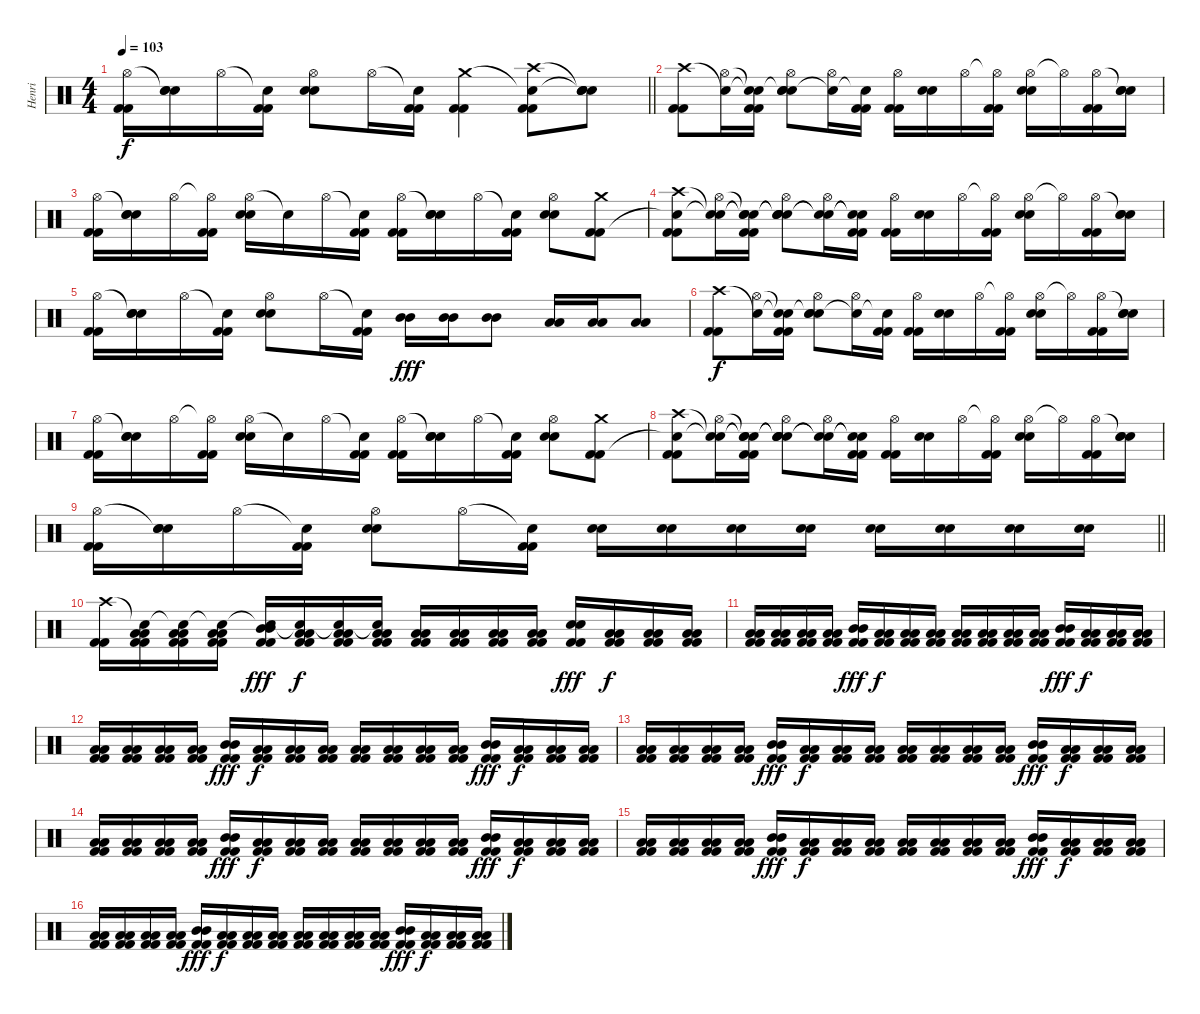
\track ("Henri" "Henri") {instrument percussion}
\staff {score}
\articulation defaults
\ts (4 4)
\tempo 103
\clef neutral
\barLineRight lightlight
\ks c
("Hi-Hat (open)" "Kick (hit) 2" "Kick (hit) 2").16{dy f} ("Snare (hit)"{t} "Snare (hit) 2" "Snare (hit) 2").16 "Hi-Hat (open)".16 ("Snare (hit)"{t} "Kick (hit) 2" "Kick (hit) 2").16 ("Hi-Hat (open)" "Snare (hit) 2" "Snare (hit) 2").8 "Hi-Hat (open)".16 ("Snare (hit)"{t} "Kick (hit) 2" "Kick (hit) 2").16 ("Crash medium (hit)" "Kick (hit) 2" "Kick (hit) 2").4 ("Snare (hit)"{t} "Crash high (hit)" "Kick (hit) 2" "Kick (hit) 2").8 ("Snare (hit)"{t} "Snare (hit)"{t} "Snare (hit) 2" "Snare (hit) 2").8 |
("Crash high (hit)" "Kick (hit) 2" "Kick (hit) 2").8 ("Snare (hit)"{t} "Hi-Hat (open)").16 ("Snare (hit)"{t} "Snare (hit)"{t} "Kick (hit) 2" "Kick (hit) 2").16 ("Snare (hit)"{t} "Hi-Hat (open)" "Snare (hit) 2" "Snare (hit) 2").8 ("Snare (hit)"{t} "Hi-Hat (open)").16 ("Snare (hit)"{t} "Kick (hit) 2" "Kick (hit) 2").16 ("Hi-Hat (open)" "Kick (hit) 2" "Kick (hit) 2").16 ("Snare (hit) 2" "Snare (hit) 2").16 "Hi-Hat (open)".16 ("Hi-Hat (open)"{t} "Kick (hit) 2" "Kick (hit) 2").16 ("Hi-Hat (open)" "Snare (hit) 2" "Snare (hit) 2").16 "Hi-Hat (open)"{t}.16 ("Hi-Hat (open)" "Kick (hit) 2" "Kick (hit) 2").16 ("Snare (hit)"{t} "Snare (hit) 2" "Snare (hit) 2").16 |
("Hi-Hat (open)" "Kick (hit) 2" "Kick (hit) 2").16 ("Snare (hit)"{t} "Snare (hit) 2" "Snare (hit) 2").16 "Hi-Hat (open)".16 ("Hi-Hat (open)"{t} "Kick (hit) 2" "Kick (hit) 2").16 ("Hi-Hat (open)" "Snare (hit) 2" "Snare (hit) 2").16 "Snare (hit)"{t}.16 "Hi-Hat (open)".16 ("Snare (hit)"{t} "Kick (hit) 2" "Kick (hit) 2").16 ("Hi-Hat (open)" "Kick (hit) 2" "Kick (hit) 2").16 ("Snare (hit)"{t} "Snare (hit) 2" "Snare (hit) 2").16 "Hi-Hat (open)".16 ("Snare (hit)"{t} "Kick (hit) 2" "Kick (hit) 2").16 ("Hi-Hat (open)" "Snare (hit) 2" "Snare (hit) 2").8 ("Crash medium (hit)" "Kick (hit) 2" "Kick (hit) 2").8 |
("Crash high (hit)" "Snare (hit)"{t} "Kick (hit) 2" "Kick (hit) 2").8 ("Snare (hit)"{t} "Snare (hit)"{t} "Hi-Hat (open)").16 ("Snare (hit)"{t} "Snare (hit)"{t} "Snare (hit)"{t} "Kick (hit) 2" "Kick (hit) 2").16 ("Snare (hit)"{t} "Snare (hit)"{t} "Hi-Hat (open)" "Snare (hit) 2" "Snare (hit) 2").8 ("Snare (hit)"{t} "Snare (hit)"{t} "Hi-Hat (open)").16 ("Snare (hit)"{t} "Snare (hit)"{t} "Kick (hit) 2" "Kick (hit) 2").16 ("Hi-Hat (open)" "Kick (hit) 2" "Kick (hit) 2").16 ("Snare (hit) 2" "Snare (hit) 2").16 "Hi-Hat (open)".16 ("Hi-Hat (open)"{t} "Kick (hit) 2" "Kick (hit) 2").16 ("Hi-Hat (open)" "Snare (hit) 2" "Snare (hit) 2").16 "Hi-Hat (open)"{t}.16 ("Hi-Hat (open)" "Kick (hit) 2" "Kick (hit) 2").16 ("Snare (hit)"{t} "Snare (hit) 2" "Snare (hit) 2").16 |
("Hi-Hat (open)" "Kick (hit) 2" "Kick (hit) 2").16 ("Snare (hit)"{t} "Snare (hit) 2" "Snare (hit) 2").16 "Hi-Hat (open)".16 ("Snare (hit)"{t} "Kick (hit) 2" "Kick (hit) 2").16 ("Hi-Hat (open)" "Snare (hit) 2" "Snare (hit) 2").8 "Hi-Hat (open)".16 ("Snare (hit)"{t} "Kick (hit) 2" "Kick (hit) 2").16 ("Mid Tom (hit)" "Mid Tom (hit)").16{dy fff} ("Mid Tom (hit)" "Mid Tom (hit)").16 ("Mid Tom (hit)" "Mid Tom (hit)").8 ("Low Tom (hit)" "Low Tom (hit)").16 ("Low Tom (hit)" "Low Tom (hit)").16 ("Low Tom (hit)" "Low Tom (hit)").8 |
("Crash high (hit)" "Kick (hit) 2" "Kick (hit) 2").8{dy f} ("Snare (hit)"{t} "Hi-Hat (open)").16 ("Snare (hit)"{t} "Snare (hit)"{t} "Kick (hit) 2" "Kick (hit) 2").16 ("Snare (hit)"{t} "Hi-Hat (open)" "Snare (hit) 2" "Snare (hit) 2").8 ("Snare (hit)"{t} "Hi-Hat (open)").16 ("Snare (hit)"{t} "Kick (hit) 2" "Kick (hit) 2").16 ("Hi-Hat (open)" "Kick (hit) 2" "Kick (hit) 2").16 ("Snare (hit) 2" "Snare (hit) 2").16 "Hi-Hat (open)".16 ("Hi-Hat (open)"{t} "Kick (hit) 2" "Kick (hit) 2").16 ("Hi-Hat (open)" "Snare (hit) 2" "Snare (hit) 2").16 "Hi-Hat (open)"{t}.16 ("Hi-Hat (open)" "Kick (hit) 2" "Kick (hit) 2").16 ("Snare (hit)"{t} "Snare (hit) 2" "Snare (hit) 2").16 |
("Hi-Hat (open)" "Kick (hit) 2" "Kick (hit) 2").16 ("Snare (hit)"{t} "Snare (hit) 2" "Snare (hit) 2").16 "Hi-Hat (open)".16 ("Hi-Hat (open)"{t} "Kick (hit) 2" "Kick (hit) 2").16 ("Hi-Hat (open)" "Snare (hit) 2" "Snare (hit) 2").16 "Snare (hit)"{t}.16 "Hi-Hat (open)".16 ("Snare (hit)"{t} "Kick (hit) 2" "Kick (hit) 2").16 ("Hi-Hat (open)" "Kick (hit) 2" "Kick (hit) 2").16 ("Snare (hit)"{t} "Snare (hit) 2" "Snare (hit) 2").16 "Hi-Hat (open)".16 ("Snare (hit)"{t} "Kick (hit) 2" "Kick (hit) 2").16 ("Hi-Hat (open)" "Snare (hit) 2" "Snare (hit) 2").8 ("Crash medium (hit)" "Kick (hit) 2" "Kick (hit) 2").8 |
("Crash high (hit)" "Snare (hit)"{t} "Kick (hit) 2" "Kick (hit) 2").8 ("Snare (hit)"{t} "Snare (hit)"{t} "Hi-Hat (open)").16 ("Snare (hit)"{t} "Snare (hit)"{t} "Snare (hit)"{t} "Kick (hit) 2" "Kick (hit) 2").16 ("Snare (hit)"{t} "Snare (hit)"{t} "Hi-Hat (open)" "Snare (hit) 2" "Snare (hit) 2").8 ("Snare (hit)"{t} "Snare (hit)"{t} "Hi-Hat (open)").16 ("Snare (hit)"{t} "Snare (hit)"{t} "Kick (hit) 2" "Kick (hit) 2").16 ("Hi-Hat (open)" "Kick (hit) 2" "Kick (hit) 2").16 ("Snare (hit) 2" "Snare (hit) 2").16 "Hi-Hat (open)".16 ("Hi-Hat (open)"{t} "Kick (hit) 2" "Kick (hit) 2").16 ("Hi-Hat (open)" "Snare (hit) 2" "Snare (hit) 2").16 "Hi-Hat (open)"{t}.16 ("Hi-Hat (open)" "Kick (hit) 2" "Kick (hit) 2").16 ("Snare (hit)"{t} "Snare (hit) 2" "Snare (hit) 2").16 |
\barLineRight lightlight
("Hi-Hat (open)" "Kick (hit) 2" "Kick (hit) 2").16 ("Snare (hit)"{t} "Snare (hit) 2" "Snare (hit) 2").16 "Hi-Hat (open)".16 ("Snare (hit)"{t} "Kick (hit) 2" "Kick (hit) 2").16 ("Hi-Hat (open)" "Snare (hit) 2" "Snare (hit) 2").8 "Hi-Hat (open)".16 ("Snare (hit)"{t} "Kick (hit) 2" "Kick (hit) 2").16 ("Snare (hit) 2" "Snare (hit) 2").16 ("Snare (hit) 2" "Snare (hit) 2").16 ("Snare (hit) 2" "Snare (hit) 2").16 ("Snare (hit) 2" "Snare (hit) 2").16 ("Snare (hit) 2" "Snare (hit) 2").16 ("Snare (hit) 2" "Snare (hit) 2").16 ("Snare (hit) 2" "Snare (hit) 2").16 ("Snare (hit) 2" "Snare (hit) 2").16 |
("Crash high (hit)" "Kick (hit) 2" "Kick (hit) 2").16 ("Snare (hit)"{t} "Low Tom (hit)" "Low Tom (hit)" "Kick (hit) 2" "Kick (hit) 2").16 ("Snare (hit)"{t} "Low Tom (hit)" "Low Tom (hit)" "Kick (hit) 2" "Kick (hit) 2").16 ("Snare (hit)"{t} "Low Tom (hit)" "Low Tom (hit)" "Kick (hit) 2" "Kick (hit) 2").16 ("Snare (hit)"{t} "Mid Tom (hit)" "Mid Tom (hit)" "Kick (hit) 2" "Kick (hit) 2").16{dy fff} ("Snare (hit)"{t} "Low Tom (hit)" "Low Tom (hit)" "Kick (hit) 2" "Kick (hit) 2").16{dy f} ("Snare (hit)"{t} "Low Tom (hit)" "Low Tom (hit)" "Kick (hit) 2" "Kick (hit) 2").16 ("Snare (hit)"{t} "Low Tom (hit)" "Low Tom (hit)" "Kick (hit) 2" "Kick (hit) 2").16 ("Low Tom (hit)" "Low Tom (hit)" "Kick (hit) 2" "Kick (hit) 2").16 ("Low Tom (hit)" "Low Tom (hit)" "Kick (hit) 2" "Kick (hit) 2").16 ("Low Tom (hit)" "Low Tom (hit)" "Kick (hit) 2" "Kick (hit) 2").16 ("Low Tom (hit)" "Low Tom (hit)" "Kick (hit) 2" "Kick (hit) 2").16 ("Snare (hit) 2" "Snare (hit) 2" "Kick (hit) 2" "Kick (hit) 2").16{dy fff} ("Low Tom (hit)" "Low Tom (hit)" "Kick (hit) 2" "Kick (hit) 2").16{dy f} ("Low Tom (hit)" "Low Tom (hit)" "Kick (hit) 2" "Kick (hit) 2").16 ("Low Tom (hit)" "Low Tom (hit)" "Kick (hit) 2" "Kick (hit) 2").16 |
("Low Tom (hit)" "Low Tom (hit)" "Kick (hit) 2" "Kick (hit) 2").16 ("Low Tom (hit)" "Low Tom (hit)" "Kick (hit) 2" "Kick (hit) 2").16 ("Low Tom (hit)" "Low Tom (hit)" "Kick (hit) 2" "Kick (hit) 2").16 ("Low Tom (hit)" "Low Tom (hit)" "Kick (hit) 2" "Kick (hit) 2").16 ("Mid Tom (hit)" "Mid Tom (hit)" "Kick (hit) 2" "Kick (hit) 2").16{dy fff} ("Low Tom (hit)" "Low Tom (hit)" "Kick (hit) 2" "Kick (hit) 2").16{dy f} ("Low Tom (hit)" "Low Tom (hit)" "Kick (hit) 2" "Kick (hit) 2").16 ("Low Tom (hit)" "Low Tom (hit)" "Kick (hit) 2" "Kick (hit) 2").16 ("Low Tom (hit)" "Low Tom (hit)" "Kick (hit) 2" "Kick (hit) 2").16 ("Low Tom (hit)" "Low Tom (hit)" "Kick (hit) 2" "Kick (hit) 2").16 ("Low Tom (hit)" "Low Tom (hit)" "Kick (hit) 2" "Kick (hit) 2").16 ("Low Tom (hit)" "Low Tom (hit)" "Kick (hit) 2" "Kick (hit) 2").16 ("Mid Tom (hit)" "Mid Tom (hit)" "Kick (hit) 2" "Kick (hit) 2").16{dy fff} ("Low Tom (hit)" "Low Tom (hit)" "Kick (hit) 2" "Kick (hit) 2").16{dy f} ("Low Tom (hit)" "Low Tom (hit)" "Kick (hit) 2" "Kick (hit) 2").16 ("Low Tom (hit)" "Low Tom (hit)" "Kick (hit) 2" "Kick (hit) 2").16 |
("Low Tom (hit)" "Low Tom (hit)" "Kick (hit) 2" "Kick (hit) 2").16 ("Low Tom (hit)" "Low Tom (hit)" "Kick (hit) 2" "Kick (hit) 2").16 ("Low Tom (hit)" "Low Tom (hit)" "Kick (hit) 2" "Kick (hit) 2").16 ("Low Tom (hit)" "Low Tom (hit)" "Kick (hit) 2" "Kick (hit) 2").16 ("Mid Tom (hit)" "Mid Tom (hit)" "Kick (hit) 2" "Kick (hit) 2").16{dy fff} ("Low Tom (hit)" "Low Tom (hit)" "Kick (hit) 2" "Kick (hit) 2").16{dy f} ("Low Tom (hit)" "Low Tom (hit)" "Kick (hit) 2" "Kick (hit) 2").16 ("Low Tom (hit)" "Low Tom (hit)" "Kick (hit) 2" "Kick (hit) 2").16 ("Low Tom (hit)" "Low Tom (hit)" "Kick (hit) 2" "Kick (hit) 2").16 ("Low Tom (hit)" "Low Tom (hit)" "Kick (hit) 2" "Kick (hit) 2").16 ("Low Tom (hit)" "Low Tom (hit)" "Kick (hit) 2" "Kick (hit) 2").16 ("Low Tom (hit)" "Low Tom (hit)" "Kick (hit) 2" "Kick (hit) 2").16 ("Mid Tom (hit)" "Mid Tom (hit)" "Kick (hit) 2" "Kick (hit) 2").16{dy fff} ("Low Tom (hit)" "Low Tom (hit)" "Kick (hit) 2" "Kick (hit) 2").16{dy f} ("Low Tom (hit)" "Low Tom (hit)" "Kick (hit) 2" "Kick (hit) 2").16 ("Low Tom (hit)" "Low Tom (hit)" "Kick (hit) 2" "Kick (hit) 2").16 |
("Low Tom (hit)" "Low Tom (hit)" "Kick (hit) 2" "Kick (hit) 2").16 ("Low Tom (hit)" "Low Tom (hit)" "Kick (hit) 2" "Kick (hit) 2").16 ("Low Tom (hit)" "Low Tom (hit)" "Kick (hit) 2" "Kick (hit) 2").16 ("Low Tom (hit)" "Low Tom (hit)" "Kick (hit) 2" "Kick (hit) 2").16 ("Mid Tom (hit)" "Mid Tom (hit)" "Kick (hit) 2" "Kick (hit) 2").16{dy fff} ("Low Tom (hit)" "Low Tom (hit)" "Kick (hit) 2" "Kick (hit) 2").16{dy f} ("Low Tom (hit)" "Low Tom (hit)" "Kick (hit) 2" "Kick (hit) 2").16 ("Low Tom (hit)" "Low Tom (hit)" "Kick (hit) 2" "Kick (hit) 2").16 ("Low Tom (hit)" "Low Tom (hit)" "Kick (hit) 2" "Kick (hit) 2").16 ("Low Tom (hit)" "Low Tom (hit)" "Kick (hit) 2" "Kick (hit) 2").16 ("Low Tom (hit)" "Low Tom (hit)" "Kick (hit) 2" "Kick (hit) 2").16 ("Low Tom (hit)" "Low Tom (hit)" "Kick (hit) 2" "Kick (hit) 2").16 ("Mid Tom (hit)" "Mid Tom (hit)" "Kick (hit) 2" "Kick (hit) 2").16{dy fff} ("Low Tom (hit)" "Low Tom (hit)" "Kick (hit) 2" "Kick (hit) 2").16{dy f} ("Low Tom (hit)" "Low Tom (hit)" "Kick (hit) 2" "Kick (hit) 2").16 ("Low Tom (hit)" "Low Tom (hit)" "Kick (hit) 2" "Kick (hit) 2").16 |
("Low Tom (hit)" "Low Tom (hit)" "Kick (hit) 2" "Kick (hit) 2").16 ("Low Tom (hit)" "Low Tom (hit)" "Kick (hit) 2" "Kick (hit) 2").16 ("Low Tom (hit)" "Low Tom (hit)" "Kick (hit) 2" "Kick (hit) 2").16 ("Low Tom (hit)" "Low Tom (hit)" "Kick (hit) 2" "Kick (hit) 2").16 ("Mid Tom (hit)" "Mid Tom (hit)" "Kick (hit) 2" "Kick (hit) 2").16{dy fff} ("Low Tom (hit)" "Low Tom (hit)" "Kick (hit) 2" "Kick (hit) 2").16{dy f} ("Low Tom (hit)" "Low Tom (hit)" "Kick (hit) 2" "Kick (hit) 2").16 ("Low Tom (hit)" "Low Tom (hit)" "Kick (hit) 2" "Kick (hit) 2").16 ("Low Tom (hit)" "Low Tom (hit)" "Kick (hit) 2" "Kick (hit) 2").16 ("Low Tom (hit)" "Low Tom (hit)" "Kick (hit) 2" "Kick (hit) 2").16 ("Low Tom (hit)" "Low Tom (hit)" "Kick (hit) 2" "Kick (hit) 2").16 ("Low Tom (hit)" "Low Tom (hit)" "Kick (hit) 2" "Kick (hit) 2").16 ("Mid Tom (hit)" "Mid Tom (hit)" "Kick (hit) 2" "Kick (hit) 2").16{dy fff} ("Low Tom (hit)" "Low Tom (hit)" "Kick (hit) 2" "Kick (hit) 2").16{dy f} ("Low Tom (hit)" "Low Tom (hit)" "Kick (hit) 2" "Kick (hit) 2").16 ("Low Tom (hit)" "Low Tom (hit)" "Kick (hit) 2" "Kick (hit) 2").16 |
("Low Tom (hit)" "Low Tom (hit)" "Kick (hit) 2" "Kick (hit) 2").16 ("Low Tom (hit)" "Low Tom (hit)" "Kick (hit) 2" "Kick (hit) 2").16 ("Low Tom (hit)" "Low Tom (hit)" "Kick (hit) 2" "Kick (hit) 2").16 ("Low Tom (hit)" "Low Tom (hit)" "Kick (hit) 2" "Kick (hit) 2").16 ("Mid Tom (hit)" "Mid Tom (hit)" "Kick (hit) 2" "Kick (hit) 2").16{dy fff} ("Low Tom (hit)" "Low Tom (hit)" "Kick (hit) 2" "Kick (hit) 2").16{dy f} ("Low Tom (hit)" "Low Tom (hit)" "Kick (hit) 2" "Kick (hit) 2").16 ("Low Tom (hit)" "Low Tom (hit)" "Kick (hit) 2" "Kick (hit) 2").16 ("Low Tom (hit)" "Low Tom (hit)" "Kick (hit) 2" "Kick (hit) 2").16 ("Low Tom (hit)" "Low Tom (hit)" "Kick (hit) 2" "Kick (hit) 2").16 ("Low Tom (hit)" "Low Tom (hit)" "Kick (hit) 2" "Kick (hit) 2").16 ("Low Tom (hit)" "Low Tom (hit)" "Kick (hit) 2" "Kick (hit) 2").16 ("Mid Tom (hit)" "Mid Tom (hit)" "Kick (hit) 2" "Kick (hit) 2").16{dy fff} ("Low Tom (hit)" "Low Tom (hit)" "Kick (hit) 2" "Kick (hit) 2").16{dy f} ("Low Tom (hit)" "Low Tom (hit)" "Kick (hit) 2" "Kick (hit) 2").16 ("Low Tom (hit)" "Low Tom (hit)" "Kick (hit) 2" "Kick (hit) 2").16 |
("Low Tom (hit)" "Low Tom (hit)" "Kick (hit) 2" "Kick (hit) 2").16 ("Low Tom (hit)" "Low Tom (hit)" "Kick (hit) 2" "Kick (hit) 2").16 ("Low Tom (hit)" "Low Tom (hit)" "Kick (hit) 2" "Kick (hit) 2").16 ("Low Tom (hit)" "Low Tom (hit)" "Kick (hit) 2" "Kick (hit) 2").16 ("Mid Tom (hit)" "Mid Tom (hit)" "Kick (hit) 2" "Kick (hit) 2").16{dy fff} ("Low Tom (hit)" "Low Tom (hit)" "Kick (hit) 2" "Kick (hit) 2").16{dy f} ("Low Tom (hit)" "Low Tom (hit)" "Kick (hit) 2" "Kick (hit) 2").16 ("Low Tom (hit)" "Low Tom (hit)" "Kick (hit) 2" "Kick (hit) 2").16 ("Low Tom (hit)" "Low Tom (hit)" "Kick (hit) 2" "Kick (hit) 2").16 ("Low Tom (hit)" "Low Tom (hit)" "Kick (hit) 2" "Kick (hit) 2").16 ("Low Tom (hit)" "Low Tom (hit)" "Kick (hit) 2" "Kick (hit) 2").16 ("Low Tom (hit)" "Low Tom (hit)" "Kick (hit) 2" "Kick (hit) 2").16 ("Mid Tom (hit)" "Mid Tom (hit)" "Kick (hit) 2" "Kick (hit) 2").16{dy fff} ("Low Tom (hit)" "Low Tom (hit)" "Kick (hit) 2" "Kick (hit) 2").16{dy f} ("Low Tom (hit)" "Low Tom (hit)" "Kick (hit) 2" "Kick (hit) 2").16 ("Low Tom (hit)" "Low Tom (hit)" "Kick (hit) 2" "Kick (hit) 2").16
